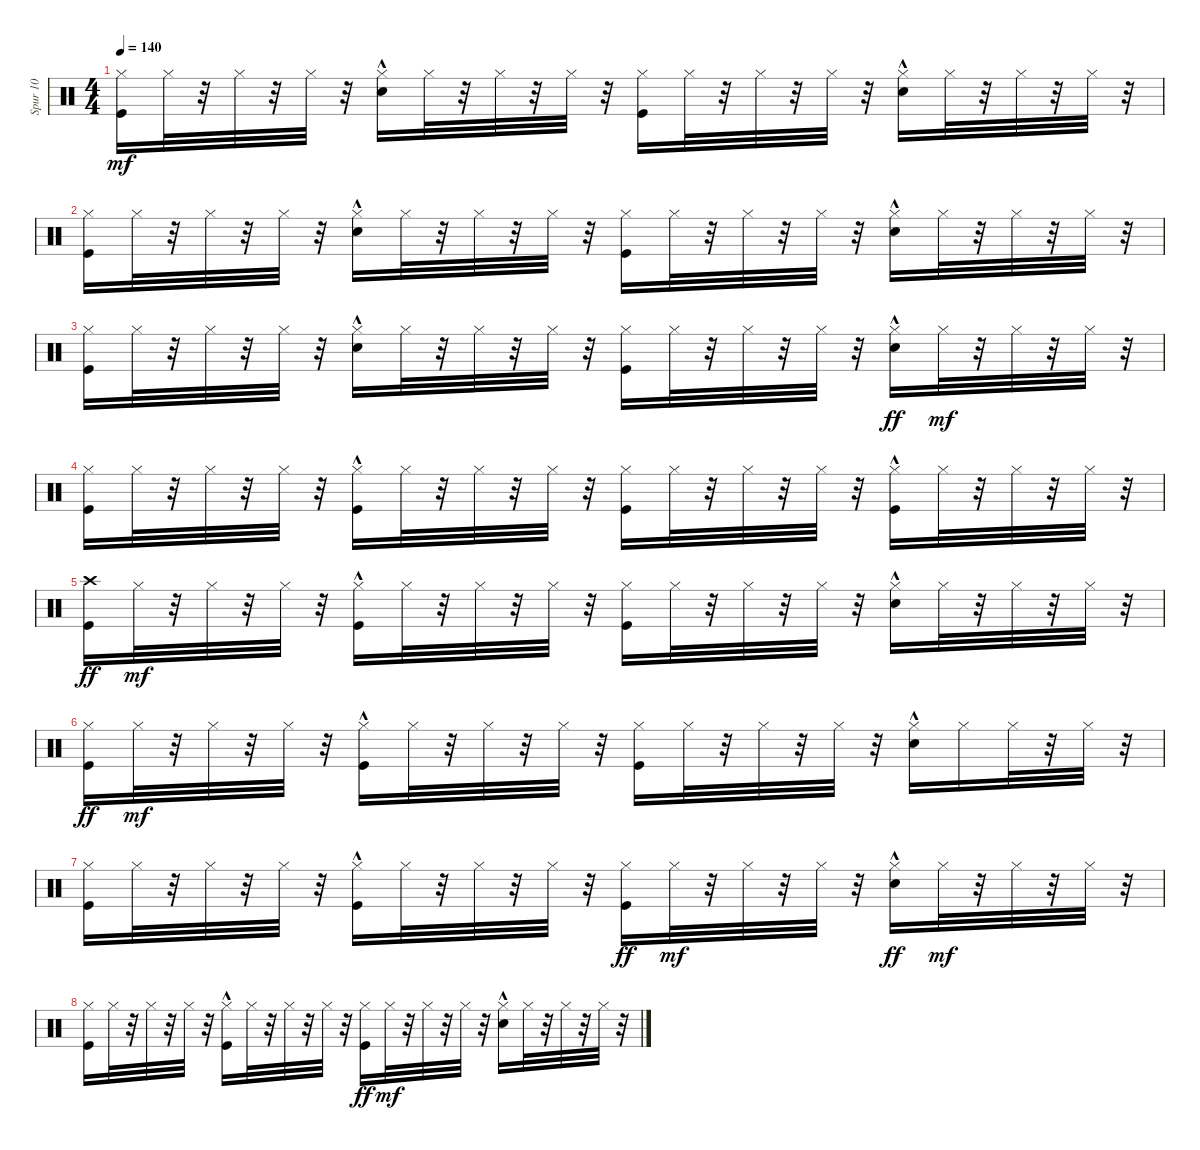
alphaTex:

\track ("Spur 10" "Spur 10") {instrument percussion}
\staff {score}
\articulation defaults
\ts (4 4)
\tempo 140
\clef neutral
\ks c
("Kick (hit)" "Hi-Hat (closed)").16{dy mf} "Hi-Hat (closed)".32 r.32 "Hi-Hat (closed)".32 r.32 "Hi-Hat (closed)".32 r.32 ("Snare (hit) 2"{hac} "Hi-Hat (closed)").16 "Hi-Hat (closed)".32 r.32 "Hi-Hat (closed)".32 r.32 "Hi-Hat (closed)".32 r.32 ("Kick (hit)" "Hi-Hat (closed)").16 "Hi-Hat (closed)".32 r.32 "Hi-Hat (closed)".32 r.32 "Hi-Hat (closed)".32 r.32 ("Snare (hit) 2"{hac} "Hi-Hat (closed)").16 "Hi-Hat (closed)".32 r.32 "Hi-Hat (closed)".32 r.32 "Hi-Hat (closed)".32 r.32 |
("Kick (hit)" "Hi-Hat (closed)").16 "Hi-Hat (closed)".32 r.32 "Hi-Hat (closed)".32 r.32 "Hi-Hat (closed)".32 r.32 ("Snare (hit) 2"{hac} "Hi-Hat (closed)").16 "Hi-Hat (closed)".32 r.32 "Hi-Hat (closed)".32 r.32 "Hi-Hat (closed)".32 r.32 ("Kick (hit)" "Hi-Hat (closed)").16 "Hi-Hat (closed)".32 r.32 "Hi-Hat (closed)".32 r.32 "Hi-Hat (closed)".32 r.32 ("Snare (hit) 2"{hac} "Hi-Hat (closed)").16 "Hi-Hat (closed)".32 r.32 "Hi-Hat (closed)".32 r.32 "Hi-Hat (closed)".32 r.32 |
("Kick (hit)" "Hi-Hat (closed)").16 "Hi-Hat (closed)".32 r.32 "Hi-Hat (closed)".32 r.32 "Hi-Hat (closed)".32 r.32 ("Snare (hit) 2"{hac} "Hi-Hat (closed)").16 "Hi-Hat (closed)".32 r.32 "Hi-Hat (closed)".32 r.32 "Hi-Hat (closed)".32 r.32 ("Kick (hit)" "Hi-Hat (closed)").16 "Hi-Hat (closed)".32 r.32 "Hi-Hat (closed)".32 r.32 "Hi-Hat (closed)".32 r.32 ("Hi-Hat (closed)" "Snare (hit) 2"{hac}).16{dy ff} "Hi-Hat (closed)".32{dy mf} r.32 "Hi-Hat (closed)".32 r.32 "Hi-Hat (closed)".32 r.32 |
("Kick (hit)" "Hi-Hat (closed)").16 "Hi-Hat (closed)".32 r.32 "Hi-Hat (closed)".32 r.32 "Hi-Hat (closed)".32 r.32 ("Kick (hit)"{hac} "Hi-Hat (closed)").16 "Hi-Hat (closed)".32 r.32 "Hi-Hat (closed)".32 r.32 "Hi-Hat (closed)".32 r.32 ("Kick (hit)" "Hi-Hat (closed)").16 "Hi-Hat (closed)".32 r.32 "Hi-Hat (closed)".32 r.32 "Hi-Hat (closed)".32 r.32 ("Kick (hit)"{hac} "Hi-Hat (closed)").16 "Hi-Hat (closed)".32 r.32 "Hi-Hat (closed)".32 r.32 "Hi-Hat (closed)".32 r.32 |
("Crash high (hit)" "Kick (hit)").16{dy ff} "Hi-Hat (closed)".32{dy mf} r.32 "Hi-Hat (closed)".32 r.32 "Hi-Hat (closed)".32 r.32 ("Kick (hit)"{hac} "Hi-Hat (closed)").16 "Hi-Hat (closed)".32 r.32 "Hi-Hat (closed)".32 r.32 "Hi-Hat (closed)".32 r.32 ("Kick (hit)" "Hi-Hat (closed)").16 "Hi-Hat (closed)".32 r.32 "Hi-Hat (closed)".32 r.32 "Hi-Hat (closed)".32 r.32 ("Snare (hit) 2"{hac} "Hi-Hat (closed)").16 "Hi-Hat (closed)".32 r.32 "Hi-Hat (closed)".32 r.32 "Hi-Hat (closed)".32 r.32 |
("Hi-Hat (closed)" "Kick (hit)").16{dy ff} "Hi-Hat (closed)".32{dy mf} r.32 "Hi-Hat (closed)".32 r.32 "Hi-Hat (closed)".32 r.32 ("Kick (hit)"{hac} "Hi-Hat (closed)").16 "Hi-Hat (closed)".32 r.32 "Hi-Hat (closed)".32 r.32 "Hi-Hat (closed)".32 r.32 ("Kick (hit)" "Hi-Hat (closed)").16 "Hi-Hat (closed)".32 r.32 "Hi-Hat (closed)".32 r.32 "Hi-Hat (closed)".32 r.32 ("Snare (hit) 2"{hac} "Hi-Hat (closed)").16 "Hi-Hat (closed)".16 "Hi-Hat (closed)".32 r.32 "Hi-Hat (closed)".32 r.32 |
("Kick (hit)" "Hi-Hat (closed)").16 "Hi-Hat (closed)".32 r.32 "Hi-Hat (closed)".32 r.32 "Hi-Hat (closed)".32 r.32 ("Kick (hit)"{hac} "Hi-Hat (closed)").16 "Hi-Hat (closed)".32 r.32 "Hi-Hat (closed)".32 r.32 "Hi-Hat (closed)".32 r.32 ("Hi-Hat (closed)" "Kick (hit)").16{dy ff} "Hi-Hat (closed)".32{dy mf} r.32 "Hi-Hat (closed)".32 r.32 "Hi-Hat (closed)".32 r.32 ("Hi-Hat (closed)" "Snare (hit) 2"{hac}).16{dy ff} "Hi-Hat (closed)".32{dy mf} r.32 "Hi-Hat (closed)".32 r.32 "Hi-Hat (closed)".32 r.32 |
("Kick (hit)" "Hi-Hat (closed)").16 "Hi-Hat (closed)".32 r.32 "Hi-Hat (closed)".32 r.32 "Hi-Hat (closed)".32 r.32 ("Kick (hit)"{hac} "Hi-Hat (closed)").16 "Hi-Hat (closed)".32 r.32 "Hi-Hat (closed)".32 r.32 "Hi-Hat (closed)".32 r.32 ("Hi-Hat (closed)" "Kick (hit)").16{dy ff} "Hi-Hat (closed)".32{dy mf} r.32 "Hi-Hat (closed)".32 r.32 "Hi-Hat (closed)".32 r.32 ("Snare (hit) 2"{hac} "Hi-Hat (closed)").16 "Hi-Hat (closed)".32 r.32 "Hi-Hat (closed)".32 r.32 "Hi-Hat (closed)".32 r.32
